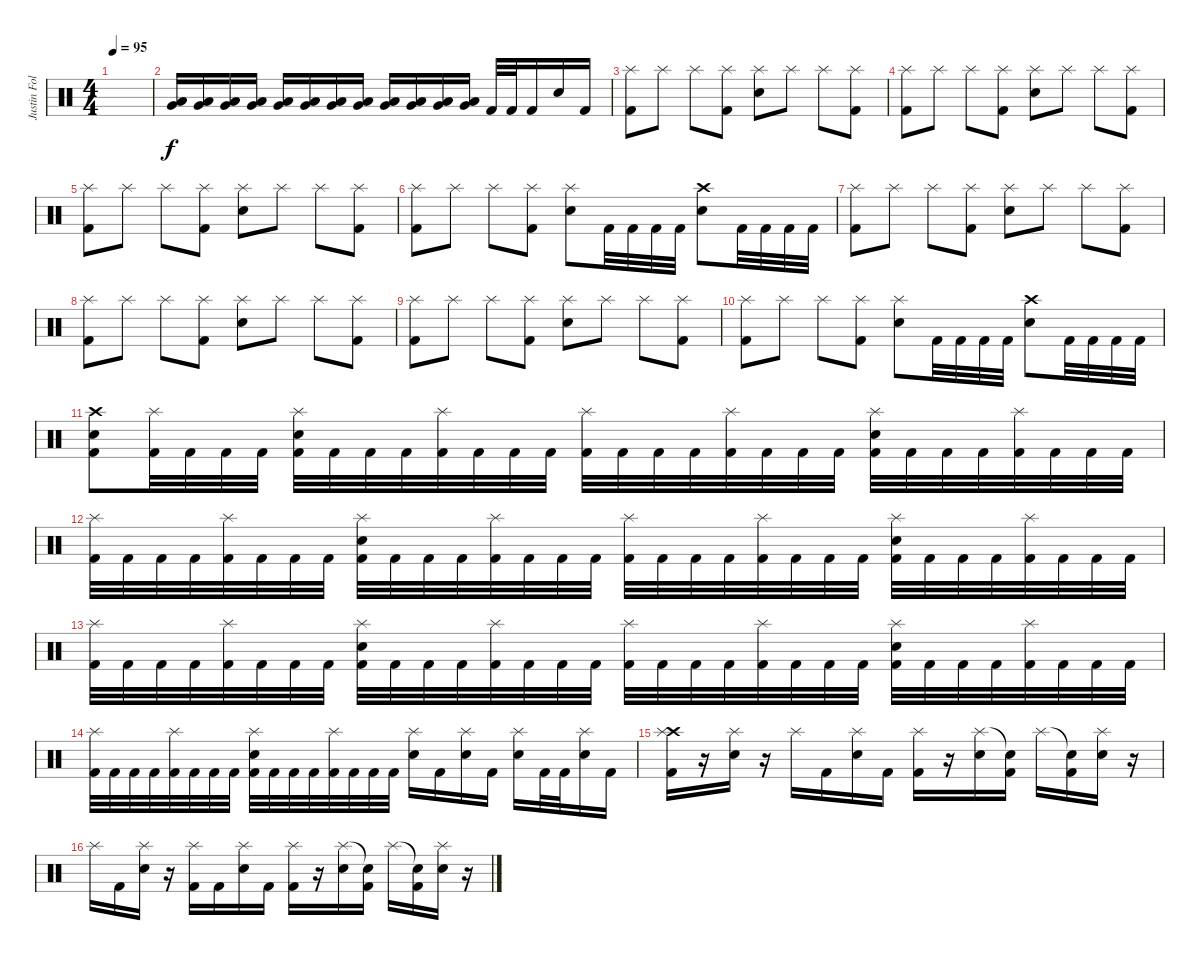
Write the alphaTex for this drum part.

\track ("Justin Foley" "Justin Fol") {instrument percussion}
\staff {score}
\articulation defaults
\ts (4 4)
\tempo 95
\clef neutral
\ks c
|
("Very Low Tom (hit)" "Low Floor Tom (hit)").16 ("Very Low Tom (hit)" "Low Floor Tom (hit)").16 ("Very Low Tom (hit)" "Low Floor Tom (hit)").16 ("Very Low Tom (hit)" "Low Floor Tom (hit)").16 ("Very Low Tom (hit)" "Low Floor Tom (hit)").16 ("Very Low Tom (hit)" "Low Floor Tom (hit)").16 ("Very Low Tom (hit)" "Low Floor Tom (hit)").16 ("Very Low Tom (hit)" "Low Floor Tom (hit)").16 ("Very Low Tom (hit)" "Low Floor Tom (hit)").16 ("Very Low Tom (hit)" "Low Floor Tom (hit)").16 ("Very Low Tom (hit)" "Low Floor Tom (hit)").16 ("Very Low Tom (hit)" "Low Floor Tom (hit)").16 "Kick (hit) 2".32 "Kick (hit) 2".32 "Kick (hit) 2".16 "Snare (hit) 2".16 "Kick (hit) 2".16 |
("Splash (hit)" "Kick (hit) 2").8 "Splash (hit)".8 "Splash (hit)".8 ("Splash (hit)" "Kick (hit) 2").8 ("Splash (hit)" "Snare (hit) 2").8 "Splash (hit)".8 "Splash (hit)".8 ("Splash (hit)" "Kick (hit) 2").8 |
("Splash (hit)" "Kick (hit) 2").8 "Splash (hit)".8 "Splash (hit)".8 ("Splash (hit)" "Kick (hit) 2").8 ("Splash (hit)" "Snare (hit) 2").8 "Splash (hit)".8 "Splash (hit)".8 ("Splash (hit)" "Kick (hit) 2").8 |
("Splash (hit)" "Kick (hit) 2").8 "Splash (hit)".8 "Splash (hit)".8 ("Splash (hit)" "Kick (hit) 2").8 ("Splash (hit)" "Snare (hit) 2").8 "Splash (hit)".8 "Splash (hit)".8 ("Splash (hit)" "Kick (hit) 2").8 |
("Splash (hit)" "Kick (hit) 2").8 "Splash (hit)".8 "Splash (hit)".8 ("Splash (hit)" "Kick (hit) 2").8 ("Splash (hit)" "Snare (hit) 2").8 "Kick (hit) 2".32 "Kick (hit) 2".32 "Kick (hit) 2".32 "Kick (hit) 2".32 ("Crash high (hit)" "Snare (hit) 2").8 "Kick (hit) 2".32 "Kick (hit) 2".32 "Kick (hit) 2".32 "Kick (hit) 2".32 |
("Splash (hit)" "Kick (hit) 2").8 "Splash (hit)".8 "Splash (hit)".8 ("Splash (hit)" "Kick (hit) 2").8 ("Splash (hit)" "Snare (hit) 2").8 "Splash (hit)".8 "Splash (hit)".8 ("Splash (hit)" "Kick (hit) 2").8 |
("Splash (hit)" "Kick (hit) 2").8 "Splash (hit)".8 "Splash (hit)".8 ("Splash (hit)" "Kick (hit) 2").8 ("Splash (hit)" "Snare (hit) 2").8 "Splash (hit)".8 "Splash (hit)".8 ("Splash (hit)" "Kick (hit) 2").8 |
("Splash (hit)" "Kick (hit) 2").8 "Splash (hit)".8 "Splash (hit)".8 ("Splash (hit)" "Kick (hit) 2").8 ("Splash (hit)" "Snare (hit) 2").8 "Splash (hit)".8 "Splash (hit)".8 ("Splash (hit)" "Kick (hit) 2").8 |
("Splash (hit)" "Kick (hit) 2").8 "Splash (hit)".8 "Splash (hit)".8 ("Splash (hit)" "Kick (hit) 2").8 ("Splash (hit)" "Snare (hit) 2").8 "Kick (hit) 2".32 "Kick (hit) 2".32 "Kick (hit) 2".32 "Kick (hit) 2".32 ("Crash high (hit)" "Snare (hit) 2").8 "Kick (hit) 2".32 "Kick (hit) 2".32 "Kick (hit) 2".32 "Kick (hit) 2".32 |
("Crash high (hit)" "Snare (hit) 2" "Kick (hit) 2").8 ("Splash (hit)" "Kick (hit) 2").32 "Kick (hit) 2".32 "Kick (hit) 2".32 "Kick (hit) 2".32 ("Splash (hit)" "Snare (hit) 2" "Kick (hit) 2").32 "Kick (hit) 2".32 "Kick (hit) 2".32 "Kick (hit) 2".32 ("Splash (hit)" "Kick (hit) 2").32 "Kick (hit) 2".32 "Kick (hit) 2".32 "Kick (hit) 2".32 ("Splash (hit)" "Kick (hit) 2").32 "Kick (hit) 2".32 "Kick (hit) 2".32 "Kick (hit) 2".32 ("Splash (hit)" "Kick (hit) 2").32 "Kick (hit) 2".32 "Kick (hit) 2".32 "Kick (hit) 2".32 ("Splash (hit)" "Snare (hit) 2" "Kick (hit) 2").32 "Kick (hit) 2".32 "Kick (hit) 2".32 "Kick (hit) 2".32 ("Splash (hit)" "Kick (hit) 2").32 "Kick (hit) 2".32 "Kick (hit) 2".32 "Kick (hit) 2".32 |
("Splash (hit)" "Kick (hit) 2").32 "Kick (hit) 2".32 "Kick (hit) 2".32 "Kick (hit) 2".32 ("Splash (hit)" "Kick (hit) 2").32 "Kick (hit) 2".32 "Kick (hit) 2".32 "Kick (hit) 2".32 ("Splash (hit)" "Snare (hit) 2" "Kick (hit) 2").32 "Kick (hit) 2".32 "Kick (hit) 2".32 "Kick (hit) 2".32 ("Splash (hit)" "Kick (hit) 2").32 "Kick (hit) 2".32 "Kick (hit) 2".32 "Kick (hit) 2".32 ("Splash (hit)" "Kick (hit) 2").32 "Kick (hit) 2".32 "Kick (hit) 2".32 "Kick (hit) 2".32 ("Splash (hit)" "Kick (hit) 2").32 "Kick (hit) 2".32 "Kick (hit) 2".32 "Kick (hit) 2".32 ("Splash (hit)" "Snare (hit) 2" "Kick (hit) 2").32 "Kick (hit) 2".32 "Kick (hit) 2".32 "Kick (hit) 2".32 ("Splash (hit)" "Kick (hit) 2").32 "Kick (hit) 2".32 "Kick (hit) 2".32 "Kick (hit) 2".32 |
("Splash (hit)" "Kick (hit) 2").32 "Kick (hit) 2".32 "Kick (hit) 2".32 "Kick (hit) 2".32 ("Splash (hit)" "Kick (hit) 2").32 "Kick (hit) 2".32 "Kick (hit) 2".32 "Kick (hit) 2".32 ("Splash (hit)" "Snare (hit) 2" "Kick (hit) 2").32 "Kick (hit) 2".32 "Kick (hit) 2".32 "Kick (hit) 2".32 ("Splash (hit)" "Kick (hit) 2").32 "Kick (hit) 2".32 "Kick (hit) 2".32 "Kick (hit) 2".32 ("Splash (hit)" "Kick (hit) 2").32 "Kick (hit) 2".32 "Kick (hit) 2".32 "Kick (hit) 2".32 ("Splash (hit)" "Kick (hit) 2").32 "Kick (hit) 2".32 "Kick (hit) 2".32 "Kick (hit) 2".32 ("Splash (hit)" "Snare (hit) 2" "Kick (hit) 2").32 "Kick (hit) 2".32 "Kick (hit) 2".32 "Kick (hit) 2".32 ("Splash (hit)" "Kick (hit) 2").32 "Kick (hit) 2".32 "Kick (hit) 2".32 "Kick (hit) 2".32 |
("Splash (hit)" "Kick (hit) 2").32 "Kick (hit) 2".32 "Kick (hit) 2".32 "Kick (hit) 2".32 ("Splash (hit)" "Kick (hit) 2").32 "Kick (hit) 2".32 "Kick (hit) 2".32 "Kick (hit) 2".32 ("Splash (hit)" "Snare (hit) 2" "Kick (hit) 2").32 "Kick (hit) 2".32 "Kick (hit) 2".32 "Kick (hit) 2".32 ("Splash (hit)" "Kick (hit) 2").32 "Kick (hit) 2".32 "Kick (hit) 2".32 "Kick (hit) 2".32 ("Splash (hit)" "Snare (hit) 2").16 "Kick (hit) 2".16 ("Splash (hit)" "Snare (hit) 2").16 "Kick (hit) 2".16 ("Splash (hit)" "Snare (hit) 2").16 "Kick (hit) 2".32 "Kick (hit) 2".32 ("Splash (hit)" "Snare (hit) 2").16 "Kick (hit) 2".16 |
("Crash high (hit)" "Splash (hit)" "Kick (hit) 2").16 r.16 ("Splash (hit)" "Snare (hit) 2").16 r.16 "Splash (hit)".16 "Kick (hit) 2".16 ("Splash (hit)" "Snare (hit) 2").16 "Kick (hit) 2".16 ("Splash (hit)" "Kick (hit) 2").16 r.16 ("Splash (hit)" "Snare (hit) 2").16 ("Snare (hit)"{t} "Kick (hit) 2").16 "Splash (hit)".16 ("Snare (hit)"{t} "Kick (hit) 2").16 ("Splash (hit)" "Snare (hit) 2").16 r.16 |
"Splash (hit)".16 "Kick (hit) 2".16 ("Splash (hit)" "Snare (hit) 2").16 r.16 ("Splash (hit)" "Kick (hit) 2").16 "Kick (hit) 2".16 ("Splash (hit)" "Snare (hit) 2").16 "Kick (hit) 2".16 ("Splash (hit)" "Kick (hit) 2").16 r.16 ("Splash (hit)" "Snare (hit) 2").16 ("Snare (hit)"{t} "Kick (hit) 2").16 "Splash (hit)".16 ("Snare (hit)"{t} "Kick (hit) 2").16 ("Splash (hit)" "Snare (hit) 2").16 r.16
